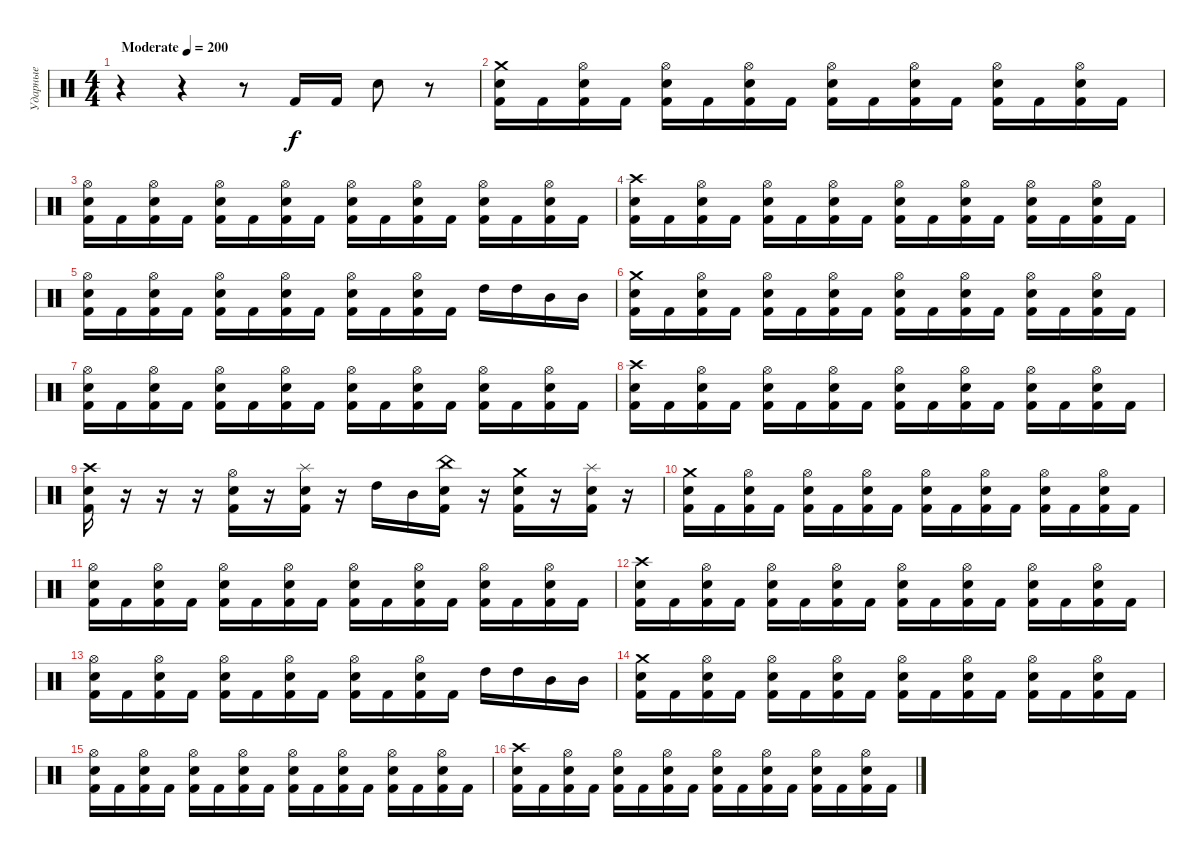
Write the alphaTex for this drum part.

\track ("Ударные" "Ударные") {instrument percussion}
\staff {score}
\articulation defaults
\ts (4 4)
\tempo (200 "Moderate")
\clef neutral
\ks c
r.4{dy f} r.4 r.8 "Kick (hit) 2".16 "Kick (hit) 2".16 "Electric Snare (hit)".8 r.8 |
("Kick (hit) 2" "Electric Snare (hit)" "Crash medium (hit)").16 "Kick (hit) 2".16 ("Kick (hit) 2" "Electric Snare (hit)" "Hi-Hat (open)").16 "Kick (hit) 2".16 ("Kick (hit) 2" "Electric Snare (hit)" "Hi-Hat (open)").16 "Kick (hit) 2".16 ("Kick (hit) 2" "Electric Snare (hit)" "Hi-Hat (open)").16 "Kick (hit) 2".16 ("Kick (hit) 2" "Electric Snare (hit)" "Hi-Hat (open)").16 "Kick (hit) 2".16 ("Kick (hit) 2" "Electric Snare (hit)" "Hi-Hat (open)").16 "Kick (hit) 2".16 ("Kick (hit) 2" "Electric Snare (hit)" "Hi-Hat (open)").16 "Kick (hit) 2".16 ("Kick (hit) 2" "Electric Snare (hit)" "Hi-Hat (open)").16 "Kick (hit) 2".16 |
("Kick (hit) 2" "Electric Snare (hit)" "Hi-Hat (open)").16 "Kick (hit) 2".16 ("Kick (hit) 2" "Electric Snare (hit)" "Hi-Hat (open)").16 "Kick (hit) 2".16 ("Kick (hit) 2" "Electric Snare (hit)" "Hi-Hat (open)").16 "Kick (hit) 2".16 ("Kick (hit) 2" "Electric Snare (hit)" "Hi-Hat (open)").16 "Kick (hit) 2".16 ("Kick (hit) 2" "Electric Snare (hit)" "Hi-Hat (open)").16 "Kick (hit) 2".16 ("Kick (hit) 2" "Electric Snare (hit)" "Hi-Hat (open)").16 "Kick (hit) 2".16 ("Kick (hit) 2" "Electric Snare (hit)" "Hi-Hat (open)").16 "Kick (hit) 2".16 ("Kick (hit) 2" "Electric Snare (hit)" "Hi-Hat (open)").16 "Kick (hit) 2".16 |
("Kick (hit) 2" "Electric Snare (hit)" "Crash high (hit)").16 "Kick (hit) 2".16 ("Kick (hit) 2" "Electric Snare (hit)" "Hi-Hat (open)").16 "Kick (hit) 2".16 ("Kick (hit) 2" "Electric Snare (hit)" "Hi-Hat (open)").16 "Kick (hit) 2".16 ("Kick (hit) 2" "Electric Snare (hit)" "Hi-Hat (open)").16 "Kick (hit) 2".16 ("Kick (hit) 2" "Electric Snare (hit)" "Hi-Hat (open)").16 "Kick (hit) 2".16 ("Kick (hit) 2" "Electric Snare (hit)" "Hi-Hat (open)").16 "Kick (hit) 2".16 ("Kick (hit) 2" "Electric Snare (hit)" "Hi-Hat (open)").16 "Kick (hit) 2".16 ("Kick (hit) 2" "Electric Snare (hit)" "Hi-Hat (open)").16 "Kick (hit) 2".16 |
("Kick (hit) 2" "Electric Snare (hit)" "Hi-Hat (open)").16 "Kick (hit) 2".16 ("Kick (hit) 2" "Electric Snare (hit)" "Hi-Hat (open)").16 "Kick (hit) 2".16 ("Kick (hit) 2" "Electric Snare (hit)" "Hi-Hat (open)").16 "Kick (hit) 2".16 ("Kick (hit) 2" "Electric Snare (hit)" "Hi-Hat (open)").16 "Kick (hit) 2".16 ("Kick (hit) 2" "Electric Snare (hit)" "Hi-Hat (open)").16 "Kick (hit) 2".16 ("Kick (hit) 2" "Electric Snare (hit)" "Hi-Hat (open)").16 "Kick (hit) 2".16 "High Tom (hit)".16 "High Tom (hit)".16 "Mid Tom (hit)".16 "Mid Tom (hit)".16 |
("Kick (hit) 2" "Electric Snare (hit)" "Crash medium (hit)").16 "Kick (hit) 2".16 ("Kick (hit) 2" "Electric Snare (hit)" "Hi-Hat (open)").16 "Kick (hit) 2".16 ("Kick (hit) 2" "Electric Snare (hit)" "Hi-Hat (open)").16 "Kick (hit) 2".16 ("Kick (hit) 2" "Electric Snare (hit)" "Hi-Hat (open)").16 "Kick (hit) 2".16 ("Kick (hit) 2" "Electric Snare (hit)" "Hi-Hat (open)").16 "Kick (hit) 2".16 ("Kick (hit) 2" "Electric Snare (hit)" "Hi-Hat (open)").16 "Kick (hit) 2".16 ("Kick (hit) 2" "Electric Snare (hit)" "Hi-Hat (open)").16 "Kick (hit) 2".16 ("Kick (hit) 2" "Electric Snare (hit)" "Hi-Hat (open)").16 "Kick (hit) 2".16 |
("Kick (hit) 2" "Electric Snare (hit)" "Hi-Hat (open)").16 "Kick (hit) 2".16 ("Kick (hit) 2" "Electric Snare (hit)" "Hi-Hat (open)").16 "Kick (hit) 2".16 ("Kick (hit) 2" "Electric Snare (hit)" "Hi-Hat (open)").16 "Kick (hit) 2".16 ("Kick (hit) 2" "Electric Snare (hit)" "Hi-Hat (open)").16 "Kick (hit) 2".16 ("Kick (hit) 2" "Electric Snare (hit)" "Hi-Hat (open)").16 "Kick (hit) 2".16 ("Kick (hit) 2" "Electric Snare (hit)" "Hi-Hat (open)").16 "Kick (hit) 2".16 ("Kick (hit) 2" "Electric Snare (hit)" "Hi-Hat (open)").16 "Kick (hit) 2".16 ("Kick (hit) 2" "Electric Snare (hit)" "Hi-Hat (open)").16 "Kick (hit) 2".16 |
("Kick (hit) 2" "Electric Snare (hit)" "Crash high (hit)").16 "Kick (hit) 2".16 ("Kick (hit) 2" "Electric Snare (hit)" "Hi-Hat (open)").16 "Kick (hit) 2".16 ("Kick (hit) 2" "Electric Snare (hit)" "Hi-Hat (open)").16 "Kick (hit) 2".16 ("Kick (hit) 2" "Electric Snare (hit)" "Hi-Hat (open)").16 "Kick (hit) 2".16 ("Kick (hit) 2" "Electric Snare (hit)" "Hi-Hat (open)").16 "Kick (hit) 2".16 ("Kick (hit) 2" "Electric Snare (hit)" "Hi-Hat (open)").16 "Kick (hit) 2".16 ("Kick (hit) 2" "Electric Snare (hit)" "Hi-Hat (open)").16 "Kick (hit) 2".16 ("Kick (hit) 2" "Electric Snare (hit)" "Hi-Hat (open)").16 "Kick (hit) 2".16 |
("Kick (hit) 2" "Electric Snare (hit)" "Crash high (hit)").16 r.16 r.16 r.16 ("Kick (hit) 2" "Electric Snare (hit)" "Hi-Hat (open)").16 r.16 ("Kick (hit) 2" "Electric Snare (hit)" "Splash (hit)").16 r.16 "High Tom (hit)".16 "Mid Tom (hit)".16 ("Kick (hit) 2" "Electric Snare (hit)" "China (hit)").16 r.16 ("Kick (hit) 2" "Electric Snare (hit)" "Crash medium (hit)").16 r.16 ("Kick (hit) 2" "Electric Snare (hit)" "Splash (hit)").16 r.16 |
("Kick (hit) 2" "Electric Snare (hit)" "Crash medium (hit)").16 "Kick (hit) 2".16 ("Kick (hit) 2" "Electric Snare (hit)" "Hi-Hat (open)").16 "Kick (hit) 2".16 ("Kick (hit) 2" "Electric Snare (hit)" "Hi-Hat (open)").16 "Kick (hit) 2".16 ("Kick (hit) 2" "Electric Snare (hit)" "Hi-Hat (open)").16 "Kick (hit) 2".16 ("Kick (hit) 2" "Electric Snare (hit)" "Hi-Hat (open)").16 "Kick (hit) 2".16 ("Kick (hit) 2" "Electric Snare (hit)" "Hi-Hat (open)").16 "Kick (hit) 2".16 ("Kick (hit) 2" "Electric Snare (hit)" "Hi-Hat (open)").16 "Kick (hit) 2".16 ("Kick (hit) 2" "Electric Snare (hit)" "Hi-Hat (open)").16 "Kick (hit) 2".16 |
("Kick (hit) 2" "Electric Snare (hit)" "Hi-Hat (open)").16 "Kick (hit) 2".16 ("Kick (hit) 2" "Electric Snare (hit)" "Hi-Hat (open)").16 "Kick (hit) 2".16 ("Kick (hit) 2" "Electric Snare (hit)" "Hi-Hat (open)").16 "Kick (hit) 2".16 ("Kick (hit) 2" "Electric Snare (hit)" "Hi-Hat (open)").16 "Kick (hit) 2".16 ("Kick (hit) 2" "Electric Snare (hit)" "Hi-Hat (open)").16 "Kick (hit) 2".16 ("Kick (hit) 2" "Electric Snare (hit)" "Hi-Hat (open)").16 "Kick (hit) 2".16 ("Kick (hit) 2" "Electric Snare (hit)" "Hi-Hat (open)").16 "Kick (hit) 2".16 ("Kick (hit) 2" "Electric Snare (hit)" "Hi-Hat (open)").16 "Kick (hit) 2".16 |
("Kick (hit) 2" "Electric Snare (hit)" "Crash high (hit)").16 "Kick (hit) 2".16 ("Kick (hit) 2" "Electric Snare (hit)" "Hi-Hat (open)").16 "Kick (hit) 2".16 ("Kick (hit) 2" "Electric Snare (hit)" "Hi-Hat (open)").16 "Kick (hit) 2".16 ("Kick (hit) 2" "Electric Snare (hit)" "Hi-Hat (open)").16 "Kick (hit) 2".16 ("Kick (hit) 2" "Electric Snare (hit)" "Hi-Hat (open)").16 "Kick (hit) 2".16 ("Kick (hit) 2" "Electric Snare (hit)" "Hi-Hat (open)").16 "Kick (hit) 2".16 ("Kick (hit) 2" "Electric Snare (hit)" "Hi-Hat (open)").16 "Kick (hit) 2".16 ("Kick (hit) 2" "Electric Snare (hit)" "Hi-Hat (open)").16 "Kick (hit) 2".16 |
("Kick (hit) 2" "Electric Snare (hit)" "Hi-Hat (open)").16 "Kick (hit) 2".16 ("Kick (hit) 2" "Electric Snare (hit)" "Hi-Hat (open)").16 "Kick (hit) 2".16 ("Kick (hit) 2" "Electric Snare (hit)" "Hi-Hat (open)").16 "Kick (hit) 2".16 ("Kick (hit) 2" "Electric Snare (hit)" "Hi-Hat (open)").16 "Kick (hit) 2".16 ("Kick (hit) 2" "Electric Snare (hit)" "Hi-Hat (open)").16 "Kick (hit) 2".16 ("Kick (hit) 2" "Electric Snare (hit)" "Hi-Hat (open)").16 "Kick (hit) 2".16 "High Tom (hit)".16 "High Tom (hit)".16 "Mid Tom (hit)".16 "Mid Tom (hit)".16 |
("Kick (hit) 2" "Electric Snare (hit)" "Crash medium (hit)").16 "Kick (hit) 2".16 ("Kick (hit) 2" "Electric Snare (hit)" "Hi-Hat (open)").16 "Kick (hit) 2".16 ("Kick (hit) 2" "Electric Snare (hit)" "Hi-Hat (open)").16 "Kick (hit) 2".16 ("Kick (hit) 2" "Electric Snare (hit)" "Hi-Hat (open)").16 "Kick (hit) 2".16 ("Kick (hit) 2" "Electric Snare (hit)" "Hi-Hat (open)").16 "Kick (hit) 2".16 ("Kick (hit) 2" "Electric Snare (hit)" "Hi-Hat (open)").16 "Kick (hit) 2".16 ("Kick (hit) 2" "Electric Snare (hit)" "Hi-Hat (open)").16 "Kick (hit) 2".16 ("Kick (hit) 2" "Electric Snare (hit)" "Hi-Hat (open)").16 "Kick (hit) 2".16 |
("Kick (hit) 2" "Electric Snare (hit)" "Hi-Hat (open)").16 "Kick (hit) 2".16 ("Kick (hit) 2" "Electric Snare (hit)" "Hi-Hat (open)").16 "Kick (hit) 2".16 ("Kick (hit) 2" "Electric Snare (hit)" "Hi-Hat (open)").16 "Kick (hit) 2".16 ("Kick (hit) 2" "Electric Snare (hit)" "Hi-Hat (open)").16 "Kick (hit) 2".16 ("Kick (hit) 2" "Electric Snare (hit)" "Hi-Hat (open)").16 "Kick (hit) 2".16 ("Kick (hit) 2" "Electric Snare (hit)" "Hi-Hat (open)").16 "Kick (hit) 2".16 ("Kick (hit) 2" "Electric Snare (hit)" "Hi-Hat (open)").16 "Kick (hit) 2".16 ("Kick (hit) 2" "Electric Snare (hit)" "Hi-Hat (open)").16 "Kick (hit) 2".16 |
("Kick (hit) 2" "Electric Snare (hit)" "Crash high (hit)").16 "Kick (hit) 2".16 ("Kick (hit) 2" "Electric Snare (hit)" "Hi-Hat (open)").16 "Kick (hit) 2".16 ("Kick (hit) 2" "Electric Snare (hit)" "Hi-Hat (open)").16 "Kick (hit) 2".16 ("Kick (hit) 2" "Electric Snare (hit)" "Hi-Hat (open)").16 "Kick (hit) 2".16 ("Kick (hit) 2" "Electric Snare (hit)" "Hi-Hat (open)").16 "Kick (hit) 2".16 ("Kick (hit) 2" "Electric Snare (hit)" "Hi-Hat (open)").16 "Kick (hit) 2".16 ("Kick (hit) 2" "Electric Snare (hit)" "Hi-Hat (open)").16 "Kick (hit) 2".16 ("Kick (hit) 2" "Electric Snare (hit)" "Hi-Hat (open)").16 "Kick (hit) 2".16
